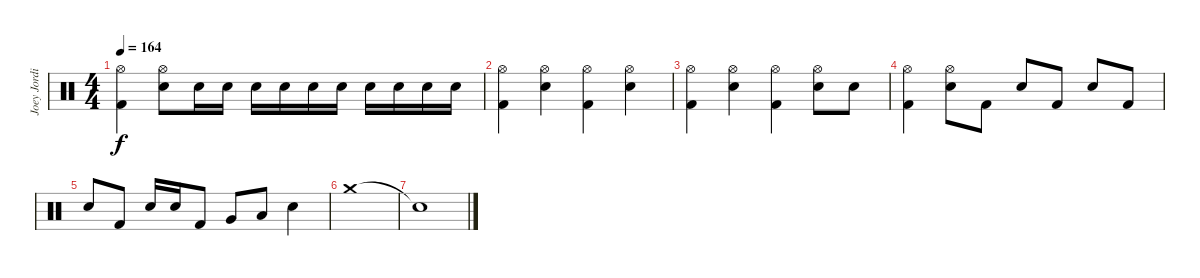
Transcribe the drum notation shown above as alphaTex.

\track ("Joey Jordison III" "Joey Jordi") {instrument percussion}
\staff {score}
\articulation defaults
\ts (4 4)
\tempo 164
\clef neutral
\ks c
("Hi-Hat (open)" "Kick (hit) 2").4{dy f} ("Hi-Hat (open)" "Electric Snare (hit)").8 "Electric Snare (hit)".16 "Electric Snare (hit)".16 "Electric Snare (hit)".16 "Electric Snare (hit)".16 "Electric Snare (hit)".16 "Electric Snare (hit)".16 "Electric Snare (hit)".16 "Electric Snare (hit)".16 "Electric Snare (hit)".16 "Electric Snare (hit)".16 |
("Hi-Hat (open)" "Kick (hit) 2").4 ("Hi-Hat (open)" "Electric Snare (hit)").4 ("Hi-Hat (open)" "Kick (hit) 2").4 ("Hi-Hat (open)" "Electric Snare (hit)").4 |
("Hi-Hat (open)" "Kick (hit) 2").4 ("Hi-Hat (open)" "Electric Snare (hit)").4 ("Hi-Hat (open)" "Kick (hit) 2").4 ("Hi-Hat (open)" "Electric Snare (hit)").8 "Electric Snare (hit)".8 |
("Hi-Hat (open)" "Kick (hit) 2").4 ("Hi-Hat (open)" "Electric Snare (hit)").8 "Kick (hit) 2".8 "Electric Snare (hit)".8 "Kick (hit) 2".8 "Electric Snare (hit)".8 "Kick (hit) 2".8 |
"Electric Snare (hit)".8 "Kick (hit) 2".8 "Electric Snare (hit)".16 "Electric Snare (hit)".16 "Kick (hit) 2".8 "Very Low Tom (hit)".8 "Low Floor Tom (hit)".8 "Electric Snare (hit)".4 |
"Crash medium (hit)".1 |
"Snare (hit)"{t}.1
